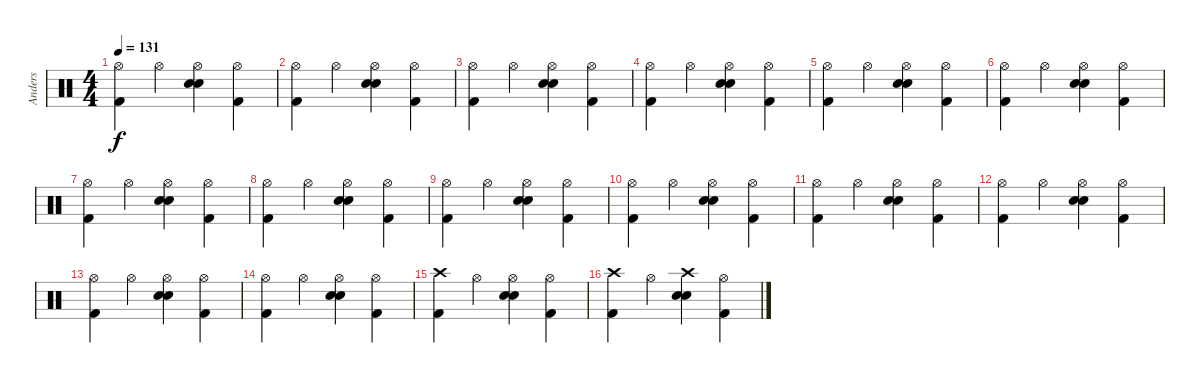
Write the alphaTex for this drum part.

\track ("Anders" "Anders") {instrument percussion}
\staff {score}
\articulation defaults
\ts (4 4)
\tempo 131
\clef neutral
\ks c
("Hi-Hat (open)" "Kick (hit) 2").4{dy f} "Hi-Hat (open)".4 ("Hi-Hat (open)" "Electric Snare (hit)" "Electric Snare (hit)").4 ("Hi-Hat (open)" "Kick (hit) 2").4 |
("Hi-Hat (open)" "Kick (hit) 2").4 "Hi-Hat (open)".4 ("Hi-Hat (open)" "Electric Snare (hit)" "Electric Snare (hit)").4 ("Hi-Hat (open)" "Kick (hit) 2").4 |
("Hi-Hat (open)" "Kick (hit) 2").4 "Hi-Hat (open)".4 ("Hi-Hat (open)" "Electric Snare (hit)" "Electric Snare (hit)").4 ("Hi-Hat (open)" "Kick (hit) 2").4 |
("Hi-Hat (open)" "Kick (hit) 2").4 "Hi-Hat (open)".4 ("Hi-Hat (open)" "Electric Snare (hit)" "Electric Snare (hit)").4 ("Hi-Hat (open)" "Kick (hit) 2").4 |
("Hi-Hat (open)" "Kick (hit) 2").4 "Hi-Hat (open)".4 ("Hi-Hat (open)" "Electric Snare (hit)" "Electric Snare (hit)").4 ("Hi-Hat (open)" "Kick (hit) 2").4 |
("Hi-Hat (open)" "Kick (hit) 2").4 "Hi-Hat (open)".4 ("Hi-Hat (open)" "Electric Snare (hit)" "Electric Snare (hit)").4 ("Hi-Hat (open)" "Kick (hit) 2").4 |
("Hi-Hat (open)" "Kick (hit) 2").4 "Hi-Hat (open)".4 ("Hi-Hat (open)" "Electric Snare (hit)" "Electric Snare (hit)").4 ("Hi-Hat (open)" "Kick (hit) 2").4 |
("Hi-Hat (open)" "Kick (hit) 2").4 "Hi-Hat (open)".4 ("Hi-Hat (open)" "Electric Snare (hit)" "Electric Snare (hit)").4 ("Hi-Hat (open)" "Kick (hit) 2").4 |
("Hi-Hat (open)" "Kick (hit) 2").4 "Hi-Hat (open)".4 ("Hi-Hat (open)" "Electric Snare (hit)" "Electric Snare (hit)").4 ("Hi-Hat (open)" "Kick (hit) 2").4 |
("Hi-Hat (open)" "Kick (hit) 2").4 "Hi-Hat (open)".4 ("Hi-Hat (open)" "Electric Snare (hit)" "Electric Snare (hit)").4 ("Hi-Hat (open)" "Kick (hit) 2").4 |
("Hi-Hat (open)" "Kick (hit) 2").4 "Hi-Hat (open)".4 ("Hi-Hat (open)" "Electric Snare (hit)" "Electric Snare (hit)").4 ("Hi-Hat (open)" "Kick (hit) 2").4 |
("Hi-Hat (open)" "Kick (hit) 2").4 "Hi-Hat (open)".4 ("Hi-Hat (open)" "Electric Snare (hit)" "Electric Snare (hit)").4 ("Hi-Hat (open)" "Kick (hit) 2").4 |
("Hi-Hat (open)" "Kick (hit) 2").4 "Hi-Hat (open)".4 ("Hi-Hat (open)" "Electric Snare (hit)" "Electric Snare (hit)").4 ("Hi-Hat (open)" "Kick (hit) 2").4 |
("Hi-Hat (open)" "Kick (hit) 2").4 "Hi-Hat (open)".4 ("Hi-Hat (open)" "Electric Snare (hit)" "Electric Snare (hit)").4 ("Hi-Hat (open)" "Kick (hit) 2").4 |
("Crash high (hit)" "Kick (hit) 2").4 "Hi-Hat (open)".4 ("Hi-Hat (open)" "Electric Snare (hit)" "Electric Snare (hit)").4 ("Hi-Hat (open)" "Kick (hit) 2").4 |
("Crash high (hit)" "Kick (hit) 2").4 "Hi-Hat (open)".4 ("Crash high (hit)" "Electric Snare (hit)" "Electric Snare (hit)").4 ("Hi-Hat (open)" "Kick (hit) 2").4
